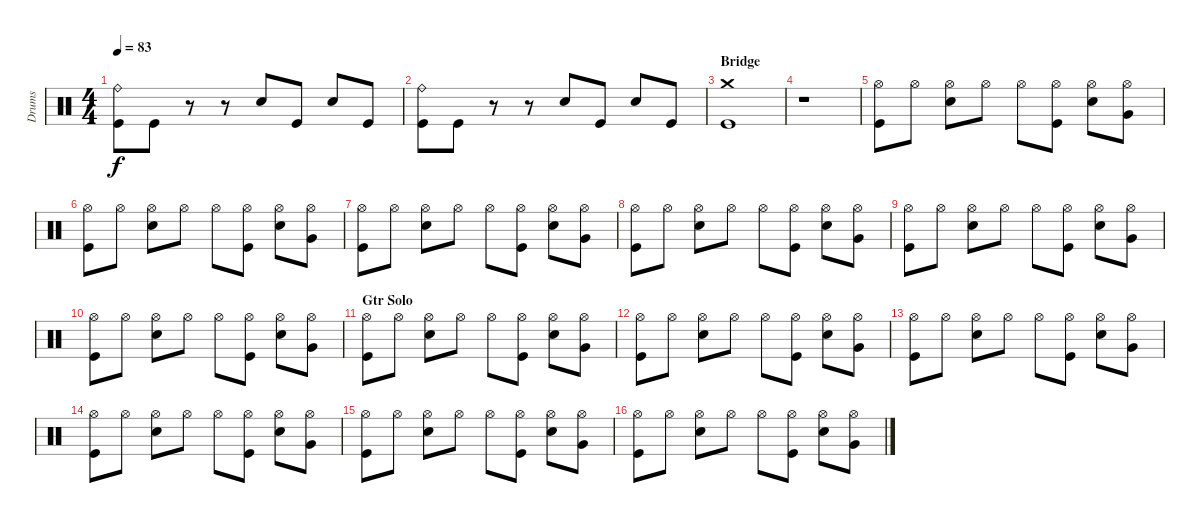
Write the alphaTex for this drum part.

\track ("Drums" "Drums") {instrument percussion}
\staff {score}
\articulation defaults
\ts (4 4)
\tempo 83
\clef neutral
\ks c
("Ride (bell)" "Kick (hit)").8{dy f} "Kick (hit)".8 r.8 r.8 "Hand Clap (hit)".8 "Kick (hit)".8 "Hand Clap (hit)".8 "Kick (hit)".8 |
("Ride (bell)" "Kick (hit)").8 "Kick (hit)".8 r.8 r.8 "Hand Clap (hit)".8 "Kick (hit)".8 "Hand Clap (hit)".8 "Kick (hit)".8 |
\section ("" "Bridge")
("Crash medium (hit)" "Kick (hit)").1 |
r.1 |
("Hi-Hat (open)" "Kick (hit)").8 "Hi-Hat (open)".8 ("Hi-Hat (open)" "Electric Snare (hit)").8 "Hi-Hat (open)".8 "Hi-Hat (open)".8 ("Hi-Hat (open)" "Kick (hit)").8 ("Hi-Hat (open)" "Electric Snare (hit)").8 ("Hi-Hat (open)" "Very Low Tom (hit)").8 |
("Hi-Hat (open)" "Kick (hit)").8 "Hi-Hat (open)".8 ("Hi-Hat (open)" "Electric Snare (hit)").8 "Hi-Hat (open)".8 "Hi-Hat (open)".8 ("Hi-Hat (open)" "Kick (hit)").8 ("Hi-Hat (open)" "Electric Snare (hit)").8 ("Hi-Hat (open)" "Very Low Tom (hit)").8 |
("Hi-Hat (open)" "Kick (hit)").8 "Hi-Hat (open)".8 ("Hi-Hat (open)" "Electric Snare (hit)").8 "Hi-Hat (open)".8 "Hi-Hat (open)".8 ("Hi-Hat (open)" "Kick (hit)").8 ("Hi-Hat (open)" "Electric Snare (hit)").8 ("Hi-Hat (open)" "Very Low Tom (hit)").8 |
("Hi-Hat (open)" "Kick (hit)").8 "Hi-Hat (open)".8 ("Hi-Hat (open)" "Electric Snare (hit)").8 "Hi-Hat (open)".8 "Hi-Hat (open)".8 ("Hi-Hat (open)" "Kick (hit)").8 ("Hi-Hat (open)" "Electric Snare (hit)").8 ("Hi-Hat (open)" "Very Low Tom (hit)").8 |
("Hi-Hat (open)" "Kick (hit)").8 "Hi-Hat (open)".8 ("Hi-Hat (open)" "Electric Snare (hit)").8 "Hi-Hat (open)".8 "Hi-Hat (open)".8 ("Hi-Hat (open)" "Kick (hit)").8 ("Hi-Hat (open)" "Electric Snare (hit)").8 ("Hi-Hat (open)" "Very Low Tom (hit)").8 |
("Hi-Hat (open)" "Kick (hit)").8 "Hi-Hat (open)".8 ("Hi-Hat (open)" "Electric Snare (hit)").8 "Hi-Hat (open)".8 "Hi-Hat (open)".8 ("Hi-Hat (open)" "Kick (hit)").8 ("Hi-Hat (open)" "Electric Snare (hit)").8 ("Hi-Hat (open)" "Very Low Tom (hit)").8 |
\section ("" "Gtr Solo")
("Hi-Hat (open)" "Kick (hit)").8 "Hi-Hat (open)".8 ("Hi-Hat (open)" "Electric Snare (hit)").8 "Hi-Hat (open)".8 "Hi-Hat (open)".8 ("Hi-Hat (open)" "Kick (hit)").8 ("Hi-Hat (open)" "Electric Snare (hit)").8 ("Hi-Hat (open)" "Very Low Tom (hit)").8 |
("Hi-Hat (open)" "Kick (hit)").8 "Hi-Hat (open)".8 ("Hi-Hat (open)" "Electric Snare (hit)").8 "Hi-Hat (open)".8 "Hi-Hat (open)".8 ("Hi-Hat (open)" "Kick (hit)").8 ("Hi-Hat (open)" "Electric Snare (hit)").8 ("Hi-Hat (open)" "Very Low Tom (hit)").8 |
("Hi-Hat (open)" "Kick (hit)").8 "Hi-Hat (open)".8 ("Hi-Hat (open)" "Electric Snare (hit)").8 "Hi-Hat (open)".8 "Hi-Hat (open)".8 ("Hi-Hat (open)" "Kick (hit)").8 ("Hi-Hat (open)" "Electric Snare (hit)").8 ("Hi-Hat (open)" "Very Low Tom (hit)").8 |
("Hi-Hat (open)" "Kick (hit)").8 "Hi-Hat (open)".8 ("Hi-Hat (open)" "Electric Snare (hit)").8 "Hi-Hat (open)".8 "Hi-Hat (open)".8 ("Hi-Hat (open)" "Kick (hit)").8 ("Hi-Hat (open)" "Electric Snare (hit)").8 ("Hi-Hat (open)" "Very Low Tom (hit)").8 |
("Hi-Hat (open)" "Kick (hit)").8 "Hi-Hat (open)".8 ("Hi-Hat (open)" "Electric Snare (hit)").8 "Hi-Hat (open)".8 "Hi-Hat (open)".8 ("Hi-Hat (open)" "Kick (hit)").8 ("Hi-Hat (open)" "Electric Snare (hit)").8 ("Hi-Hat (open)" "Very Low Tom (hit)").8 |
("Hi-Hat (open)" "Kick (hit)").8 "Hi-Hat (open)".8 ("Hi-Hat (open)" "Electric Snare (hit)").8 "Hi-Hat (open)".8 "Hi-Hat (open)".8 ("Hi-Hat (open)" "Kick (hit)").8 ("Hi-Hat (open)" "Electric Snare (hit)").8 ("Hi-Hat (open)" "Very Low Tom (hit)").8
